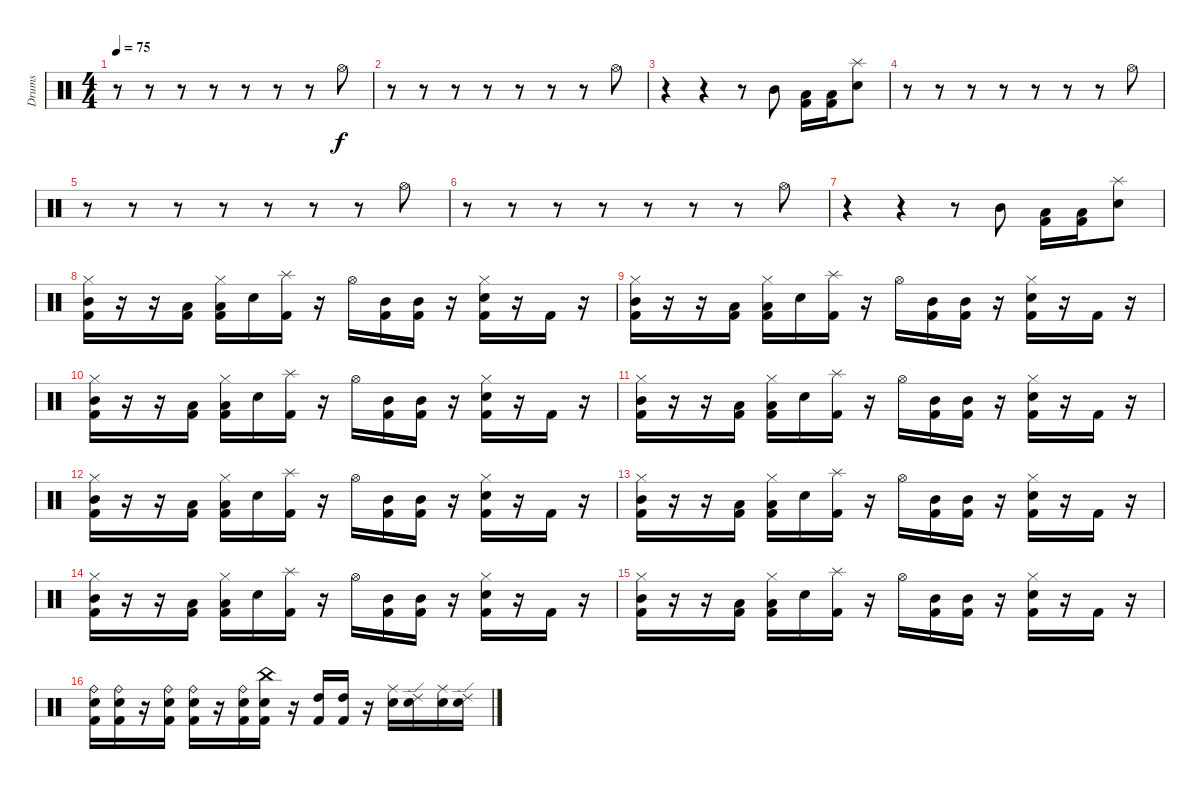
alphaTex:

\track ("Drums" "Drums") {instrument percussion}
\staff {score}
\articulation defaults
\ts (4 4)
\tempo 75
\clef neutral
\ks c
r.8{dy f} r.8 r.8 r.8 r.8 r.8 r.8 "Hi-Hat (open)".8 |
r.8 r.8 r.8 r.8 r.8 r.8 r.8 "Hi-Hat (open)".8 |
r.4 r.4 r.8 "Mid Tom (hit)".8 ("Low Tom (hit)" "Kick (hit) 2").16 ("Low Tom (hit)" "Kick (hit) 2").16 ("Splash (hit)" "Snare (hit) 2").8 |
r.8 r.8 r.8 r.8 r.8 r.8 r.8 "Hi-Hat (open)".8 |
r.8 r.8 r.8 r.8 r.8 r.8 r.8 "Hi-Hat (open)".8 |
r.8 r.8 r.8 r.8 r.8 r.8 r.8 "Hi-Hat (open)".8 |
r.4 r.4 r.8 "Mid Tom (hit)".8 ("Low Tom (hit)" "Kick (hit) 2").16 ("Low Tom (hit)" "Kick (hit) 2").16 ("Splash (hit)" "Snare (hit) 2").8 |
("Mid Tom (hit)" "Hi-Hat (closed)" "Kick (hit) 2").16 r.16 r.16 ("Low Tom (hit)" "Kick (hit) 2").16 ("Hi-Hat (closed)" "Low Tom (hit)" "Kick (hit) 2").16 "Snare (hit) 2".16 ("Splash (hit)" "Kick (hit) 2").16 r.16 "Hi-Hat (open)".16 ("Mid Tom (hit)" "Kick (hit) 2").16 ("Mid Tom (hit)" "Kick (hit) 2").16 r.16 ("Hi-Hat (closed)" "Snare (hit) 2" "Kick (hit) 2").16 r.16 "Kick (hit) 2".16 r.16 |
("Mid Tom (hit)" "Hi-Hat (closed)" "Kick (hit) 2").16 r.16 r.16 ("Low Tom (hit)" "Kick (hit) 2").16 ("Hi-Hat (closed)" "Low Tom (hit)" "Kick (hit) 2").16 "Snare (hit) 2".16 ("Splash (hit)" "Kick (hit) 2").16 r.16 "Hi-Hat (open)".16 ("Mid Tom (hit)" "Kick (hit) 2").16 ("Mid Tom (hit)" "Kick (hit) 2").16 r.16 ("Hi-Hat (closed)" "Snare (hit) 2" "Kick (hit) 2").16 r.16 "Kick (hit) 2".16 r.16 |
("Mid Tom (hit)" "Hi-Hat (closed)" "Kick (hit) 2").16 r.16 r.16 ("Low Tom (hit)" "Kick (hit) 2").16 ("Hi-Hat (closed)" "Low Tom (hit)" "Kick (hit) 2").16 "Snare (hit) 2".16 ("Splash (hit)" "Kick (hit) 2").16 r.16 "Hi-Hat (open)".16 ("Mid Tom (hit)" "Kick (hit) 2").16 ("Mid Tom (hit)" "Kick (hit) 2").16 r.16 ("Hi-Hat (closed)" "Snare (hit) 2" "Kick (hit) 2").16 r.16 "Kick (hit) 2".16 r.16 |
("Mid Tom (hit)" "Hi-Hat (closed)" "Kick (hit) 2").16 r.16 r.16 ("Low Tom (hit)" "Kick (hit) 2").16 ("Hi-Hat (closed)" "Low Tom (hit)" "Kick (hit) 2").16 "Snare (hit) 2".16 ("Splash (hit)" "Kick (hit) 2").16 r.16 "Hi-Hat (open)".16 ("Mid Tom (hit)" "Kick (hit) 2").16 ("Mid Tom (hit)" "Kick (hit) 2").16 r.16 ("Hi-Hat (closed)" "Snare (hit) 2" "Kick (hit) 2").16 r.16 "Kick (hit) 2".16 r.16 |
("Mid Tom (hit)" "Hi-Hat (closed)" "Kick (hit) 2").16 r.16 r.16 ("Low Tom (hit)" "Kick (hit) 2").16 ("Hi-Hat (closed)" "Low Tom (hit)" "Kick (hit) 2").16 "Snare (hit) 2".16 ("Splash (hit)" "Kick (hit) 2").16 r.16 "Hi-Hat (open)".16 ("Mid Tom (hit)" "Kick (hit) 2").16 ("Mid Tom (hit)" "Kick (hit) 2").16 r.16 ("Hi-Hat (closed)" "Snare (hit) 2" "Kick (hit) 2").16 r.16 "Kick (hit) 2".16 r.16 |
("Mid Tom (hit)" "Hi-Hat (closed)" "Kick (hit) 2").16 r.16 r.16 ("Low Tom (hit)" "Kick (hit) 2").16 ("Hi-Hat (closed)" "Low Tom (hit)" "Kick (hit) 2").16 "Snare (hit) 2".16 ("Splash (hit)" "Kick (hit) 2").16 r.16 "Hi-Hat (open)".16 ("Mid Tom (hit)" "Kick (hit) 2").16 ("Mid Tom (hit)" "Kick (hit) 2").16 r.16 ("Hi-Hat (closed)" "Snare (hit) 2" "Kick (hit) 2").16 r.16 "Kick (hit) 2".16 r.16 |
("Mid Tom (hit)" "Hi-Hat (closed)" "Kick (hit) 2").16 r.16 r.16 ("Low Tom (hit)" "Kick (hit) 2").16 ("Hi-Hat (closed)" "Low Tom (hit)" "Kick (hit) 2").16 "Snare (hit) 2".16 ("Splash (hit)" "Kick (hit) 2").16 r.16 "Hi-Hat (open)".16 ("Mid Tom (hit)" "Kick (hit) 2").16 ("Mid Tom (hit)" "Kick (hit) 2").16 r.16 ("Hi-Hat (closed)" "Snare (hit) 2" "Kick (hit) 2").16 r.16 "Kick (hit) 2".16 r.16 |
("Mid Tom (hit)" "Hi-Hat (closed)" "Kick (hit) 2").16 r.16 r.16 ("Low Tom (hit)" "Kick (hit) 2").16 ("Hi-Hat (closed)" "Low Tom (hit)" "Kick (hit) 2").16 "Snare (hit) 2".16 ("Splash (hit)" "Kick (hit) 2").16 r.16 "Hi-Hat (open)".16 ("Mid Tom (hit)" "Kick (hit) 2").16 ("Mid Tom (hit)" "Kick (hit) 2").16 r.16 ("Hi-Hat (closed)" "Snare (hit) 2" "Kick (hit) 2").16 r.16 "Kick (hit) 2".16 r.16 |
("Ride (bell)" "Snare (hit) 2" "Kick (hit) 2").16 ("Ride (bell)" "Snare (hit) 2" "Kick (hit) 2").16 r.16 ("Ride (bell)" "Snare (hit) 2" "Kick (hit) 2").16 ("Ride (bell)" "Snare (hit) 2" "Kick (hit) 2").16 r.16 ("Ride (bell)" "Snare (hit) 2" "Kick (hit) 2").16 ("China (hit)" "Snare (hit) 2" "Kick (hit) 2").16 r.16 ("High Tom (hit)" "Kick (hit) 2").16 ("High Tom (hit)" "Kick (hit) 2").16 r.16 ("Ride (middle)" "Snare (hit) 2").16 ("Ride (edge) 2" "Snare (hit) 2").16 ("Ride (middle)" "Snare (hit) 2").16 ("Ride (edge) 2" "Snare (hit) 2").16
